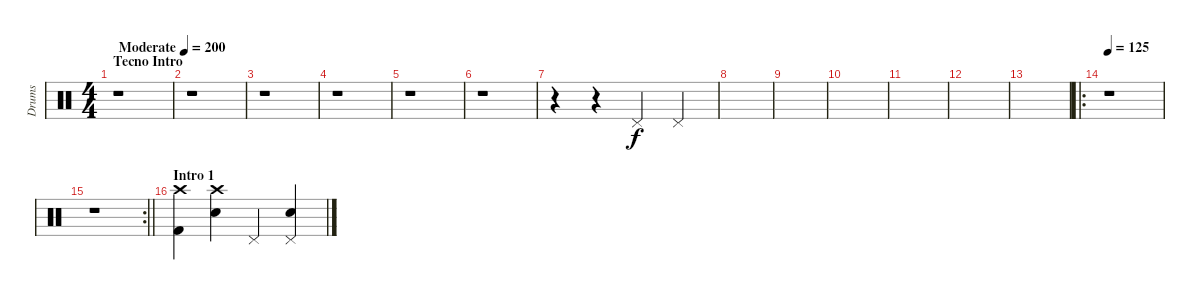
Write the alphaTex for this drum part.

\track ("Drums" "Drums") {instrument percussion}
\staff {score}
\articulation defaults
\ts (4 4)
\section ("" "Tecno Intro")
\tempo (200 "Moderate")
\tempo 115
\tempo (200 "Moderate")
\clef neutral
\ks c
r.1{dy f} |
r.1 |
r.1 |
r.1 |
r.1 |
r.1 |
r.4 r.4 "Pedal Hi-Hat (hit)".4 "Pedal Hi-Hat (hit)".4 |
|
|
|
|
|
|
\ro
\tempo 125
r.1 |
\rc 2
\barLineRight lightlight
r.1 |
\section ("" "Intro 1")
("Crash high (hit)" "Kick (hit) 2").4 ("Crash high (hit)" "Electric Snare (hit)").4 "Pedal Hi-Hat (hit)".4 ("Pedal Hi-Hat (hit)" "Electric Snare (hit)").4
